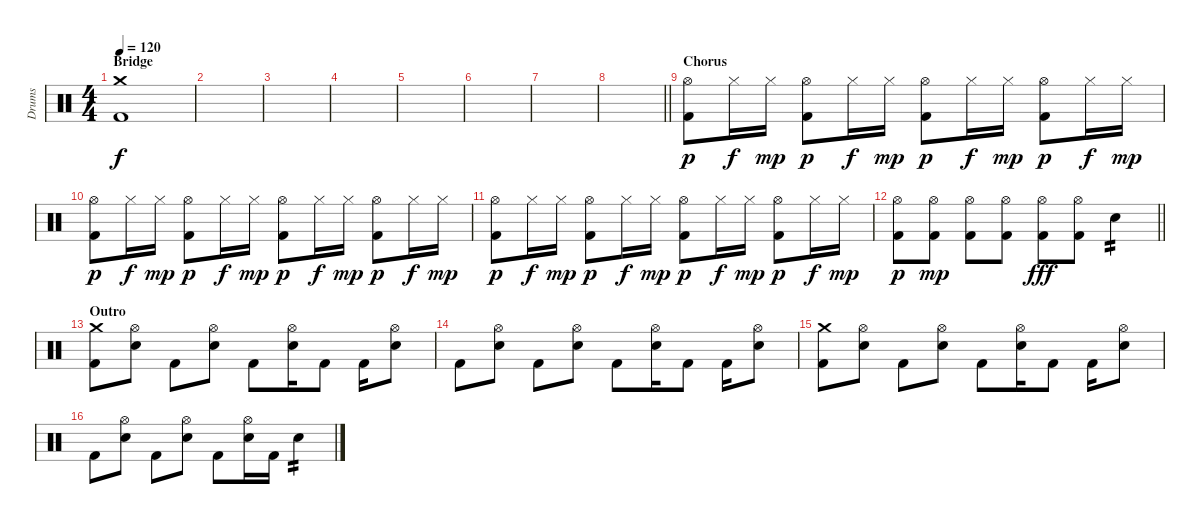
\track ("Drums" "Drums") {instrument percussion}
\staff {score}
\articulation defaults
\ts (4 4)
\section ("" "Bridge")
\tempo 120
\clef neutral
\ks c
("Crash medium (hit)" "Kick (hit) 2").1{dy f} |
|
|
|
|
|
|
\barLineRight lightlight
|
\section ("" "Chorus")
("Hi-Hat (open)" "Kick (hit) 2").8{dy p} "Hi-Hat (closed)".16{dy f} "Hi-Hat (closed)".16{dy mp} ("Hi-Hat (open)" "Kick (hit) 2").8{dy p} "Hi-Hat (closed)".16{dy f} "Hi-Hat (closed)".16{dy mp} ("Hi-Hat (open)" "Kick (hit) 2").8{dy p} "Hi-Hat (closed)".16{dy f} "Hi-Hat (closed)".16{dy mp} ("Hi-Hat (open)" "Kick (hit) 2").8{dy p} "Hi-Hat (closed)".16{dy f} "Hi-Hat (closed)".16{dy mp} |
("Hi-Hat (open)" "Kick (hit) 2").8{dy p} "Hi-Hat (closed)".16{dy f} "Hi-Hat (closed)".16{dy mp} ("Hi-Hat (open)" "Kick (hit) 2").8{dy p} "Hi-Hat (closed)".16{dy f} "Hi-Hat (closed)".16{dy mp} ("Hi-Hat (open)" "Kick (hit) 2").8{dy p} "Hi-Hat (closed)".16{dy f} "Hi-Hat (closed)".16{dy mp} ("Hi-Hat (open)" "Kick (hit) 2").8{dy p} "Hi-Hat (closed)".16{dy f} "Hi-Hat (closed)".16{dy mp} |
("Hi-Hat (open)" "Kick (hit) 2").8{dy p} "Hi-Hat (closed)".16{dy f} "Hi-Hat (closed)".16{dy mp} ("Hi-Hat (open)" "Kick (hit) 2").8{dy p} "Hi-Hat (closed)".16{dy f} "Hi-Hat (closed)".16{dy mp} ("Hi-Hat (open)" "Kick (hit) 2").8{dy p} "Hi-Hat (closed)".16{dy f} "Hi-Hat (closed)".16{dy mp} ("Hi-Hat (open)" "Kick (hit) 2").8{dy p} "Hi-Hat (closed)".16{dy f} "Hi-Hat (closed)".16{dy mp} |
\barLineRight lightlight
("Hi-Hat (open)" "Kick (hit) 2").8{dy p} ("Hi-Hat (open)" "Kick (hit) 2").8{dy mp} ("Hi-Hat (open)" "Kick (hit) 2").8 ("Hi-Hat (open)" "Kick (hit) 2").8 ("Hi-Hat (open)" "Kick (hit) 2").8{dy fff} ("Hi-Hat (open)" "Kick (hit) 2").8 "Snare (hit) 2".4{tp 2} |
\section ("" "Outro")
("Crash medium (hit)" "Kick (hit) 2").8 ("Hi-Hat (open)" "Snare (hit) 2").8 "Kick (hit) 2".8 ("Hi-Hat (open)" "Snare (hit) 2").8 "Kick (hit) 2".8 ("Hi-Hat (open)" "Snare (hit) 2").16 "Kick (hit) 2".8 "Kick (hit) 2".16 ("Hi-Hat (open)" "Snare (hit) 2").8 |
"Kick (hit) 2".8 ("Hi-Hat (open)" "Snare (hit) 2").8 "Kick (hit) 2".8 ("Hi-Hat (open)" "Snare (hit) 2").8 "Kick (hit) 2".8 ("Hi-Hat (open)" "Snare (hit) 2").16 "Kick (hit) 2".8 "Kick (hit) 2".16 ("Hi-Hat (open)" "Snare (hit) 2").8 |
("Crash medium (hit)" "Kick (hit) 2").8 ("Hi-Hat (open)" "Snare (hit) 2").8 "Kick (hit) 2".8 ("Hi-Hat (open)" "Snare (hit) 2").8 "Kick (hit) 2".8 ("Hi-Hat (open)" "Snare (hit) 2").16 "Kick (hit) 2".8 "Kick (hit) 2".16 ("Hi-Hat (open)" "Snare (hit) 2").8 |
"Kick (hit) 2".8 ("Hi-Hat (open)" "Snare (hit) 2").8 "Kick (hit) 2".8 ("Hi-Hat (open)" "Snare (hit) 2").8 "Kick (hit) 2".8 ("Hi-Hat (open)" "Snare (hit) 2").16 "Kick (hit) 2".16 "Snare (hit) 2".4{tp 2}
